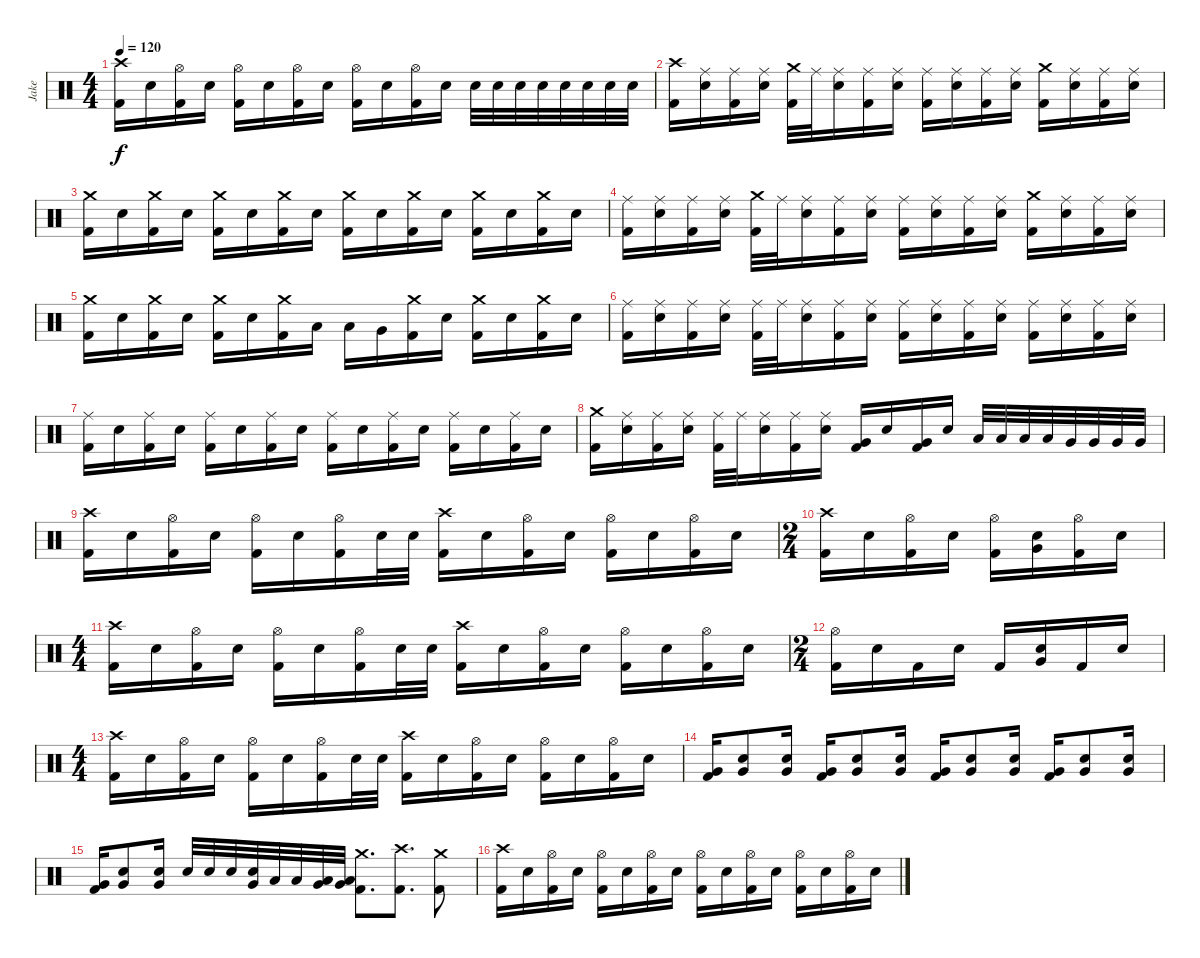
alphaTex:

\track ("Jake" "Jake") {instrument percussion}
\staff {score}
\articulation defaults
\ts (4 4)
\tempo 120
\clef neutral
\ks c
("Crash high (hit)" "Kick (hit) 2").16{dy f} "Snare (hit) 2".16 ("Hi-Hat (open)" "Kick (hit) 2").16 "Snare (hit) 2".16 ("Hi-Hat (open)" "Kick (hit) 2").16 "Snare (hit) 2".16 ("Hi-Hat (open)" "Kick (hit) 2").16 "Snare (hit) 2".16 ("Hi-Hat (open)" "Kick (hit) 2").16 "Snare (hit) 2".16 ("Hi-Hat (open)" "Kick (hit) 2").16 "Snare (hit) 2".16 "Snare (hit) 2".32 "Snare (hit) 2".32 "Snare (hit) 2".32 "Snare (hit) 2".32 "Snare (hit) 2".32 "Snare (hit) 2".32 "Snare (hit) 2".32 "Snare (hit) 2".32 |
("Crash high (hit)" "Kick (hit) 2").16 ("Ride (middle)" "Snare (hit) 2").16 ("Ride (middle)" "Kick (hit) 2").16 ("Ride (middle)" "Snare (hit) 2").16 ("Crash medium (hit)" "Kick (hit) 2").32 "Ride (middle)".32 ("Ride (middle)" "Snare (hit) 2").16 ("Ride (middle)" "Kick (hit) 2").16 ("Ride (middle)" "Snare (hit) 2").16 ("Ride (middle)" "Kick (hit) 2").16 ("Ride (middle)" "Snare (hit) 2").16 ("Ride (middle)" "Kick (hit) 2").16 ("Ride (middle)" "Snare (hit) 2").16 ("Crash medium (hit)" "Kick (hit) 2").16 ("Ride (middle)" "Snare (hit) 2").16 ("Ride (middle)" "Kick (hit) 2").16 ("Ride (middle)" "Snare (hit) 2").16 |
("Crash medium (hit)" "Kick (hit) 2").16 "Snare (hit) 2".16 ("Crash medium (hit)" "Kick (hit) 2").16 "Snare (hit) 2".16 ("Crash medium (hit)" "Kick (hit) 2").16 "Snare (hit) 2".16 ("Crash medium (hit)" "Kick (hit) 2").16 "Snare (hit) 2".16 ("Crash medium (hit)" "Kick (hit) 2").16 "Snare (hit) 2".16 ("Crash medium (hit)" "Kick (hit) 2").16 "Snare (hit) 2".16 ("Crash medium (hit)" "Kick (hit) 2").16 "Snare (hit) 2".16 ("Crash medium (hit)" "Kick (hit) 2").16 "Snare (hit) 2".16 |
("Ride (middle)" "Kick (hit) 2").16 ("Ride (middle)" "Snare (hit) 2").16 ("Ride (middle)" "Kick (hit) 2").16 ("Ride (middle)" "Snare (hit) 2").16 ("Crash medium (hit)" "Kick (hit) 2").32 "Ride (middle)".32 ("Ride (middle)" "Snare (hit) 2").16 ("Ride (middle)" "Kick (hit) 2").16 ("Ride (middle)" "Snare (hit) 2").16 ("Ride (middle)" "Kick (hit) 2").16 ("Ride (middle)" "Snare (hit) 2").16 ("Ride (middle)" "Kick (hit) 2").16 ("Ride (middle)" "Snare (hit) 2").16 ("Crash medium (hit)" "Kick (hit) 2").16 ("Ride (middle)" "Snare (hit) 2").16 ("Ride (middle)" "Kick (hit) 2").16 ("Ride (middle)" "Snare (hit) 2").16 |
("Crash medium (hit)" "Kick (hit) 2").16 "Snare (hit) 2".16 ("Crash medium (hit)" "Kick (hit) 2").16 "Snare (hit) 2".16 ("Crash medium (hit)" "Kick (hit) 2").16 "Snare (hit) 2".16 ("Crash medium (hit)" "Kick (hit) 2").16 "Low Tom (hit)".16 "Low Tom (hit)".16 "Very Low Tom (hit)".16 ("Crash medium (hit)" "Kick (hit) 2").16 "Snare (hit) 2".16 ("Crash medium (hit)" "Kick (hit) 2").16 "Snare (hit) 2".16 ("Crash medium (hit)" "Kick (hit) 2").16 "Snare (hit) 2".16 |
("Ride (middle)" "Kick (hit) 2").16 ("Ride (middle)" "Snare (hit) 2").16 ("Ride (middle)" "Kick (hit) 2").16 ("Ride (middle)" "Snare (hit) 2").16 ("Ride (middle)" "Kick (hit) 2").32 "Ride (middle)".32 ("Ride (middle)" "Snare (hit) 2").16 ("Ride (middle)" "Kick (hit) 2").16 ("Ride (middle)" "Snare (hit) 2").16 ("Ride (middle)" "Kick (hit) 2").16 ("Ride (middle)" "Snare (hit) 2").16 ("Ride (middle)" "Kick (hit) 2").16 ("Ride (middle)" "Snare (hit) 2").16 ("Ride (middle)" "Kick (hit) 2").16 ("Ride (middle)" "Snare (hit) 2").16 ("Ride (middle)" "Kick (hit) 2").16 ("Ride (middle)" "Snare (hit) 2").16 |
("Ride (middle)" "Kick (hit) 2").16 "Snare (hit) 2".16 ("Ride (middle)" "Kick (hit) 2").16 "Snare (hit) 2".16 ("Ride (middle)" "Kick (hit) 2").16 "Snare (hit) 2".16 ("Ride (middle)" "Kick (hit) 2").16 "Snare (hit) 2".16 ("Ride (middle)" "Kick (hit) 2").16 "Snare (hit) 2".16 ("Ride (middle)" "Kick (hit) 2").16 "Snare (hit) 2".16 ("Ride (middle)" "Kick (hit) 2").16 "Snare (hit) 2".16 ("Ride (middle)" "Kick (hit) 2").16 "Snare (hit) 2".16 |
("Crash medium (hit)" "Kick (hit) 2").16 ("Ride (middle)" "Snare (hit) 2").16 ("Ride (middle)" "Kick (hit) 2").16 ("Ride (middle)" "Snare (hit) 2").16 ("Ride (middle)" "Kick (hit) 2").32 "Ride (middle)".32 ("Ride (middle)" "Snare (hit) 2").16 ("Ride (middle)" "Kick (hit) 2").16 ("Ride (middle)" "Snare (hit) 2").16 ("Very Low Tom (hit)" "Kick (hit) 2").16 "Snare (hit) 2".16 ("Very Low Tom (hit)" "Kick (hit) 2").16 "Snare (hit) 2".16 "Low Tom (hit)".32 "Low Tom (hit)".32 "Low Tom (hit)".32 "Low Tom (hit)".32 "Very Low Tom (hit)".32 "Very Low Tom (hit)".32 "Very Low Tom (hit)".32 "Very Low Tom (hit)".32 |
("Crash high (hit)" "Kick (hit) 2").16 "Snare (hit) 2".16 ("Hi-Hat (open)" "Kick (hit) 2").16 "Snare (hit) 2".16 ("Hi-Hat (open)" "Kick (hit) 2").16 "Snare (hit) 2".16 ("Hi-Hat (open)" "Kick (hit) 2").16 "Snare (hit) 2".32 "Snare (hit) 2".32 ("Crash high (hit)" "Kick (hit) 2").16 "Snare (hit) 2".16 ("Hi-Hat (open)" "Kick (hit) 2").16 "Snare (hit) 2".16 ("Hi-Hat (open)" "Kick (hit) 2").16 "Snare (hit) 2".16 ("Hi-Hat (open)" "Kick (hit) 2").16 "Snare (hit) 2".16 |
\ts (2 4)
("Crash high (hit)" "Kick (hit) 2").16 "Snare (hit) 2".16 ("Hi-Hat (open)" "Kick (hit) 2").16 "Snare (hit) 2".16 ("Hi-Hat (open)" "Kick (hit) 2").16 ("Very Low Tom (hit)" "Snare (hit) 2").16 ("Hi-Hat (open)" "Kick (hit) 2").16 "Snare (hit) 2".16 |
\ts (4 4)
("Crash high (hit)" "Kick (hit) 2").16 "Snare (hit) 2".16 ("Hi-Hat (open)" "Kick (hit) 2").16 "Snare (hit) 2".16 ("Hi-Hat (open)" "Kick (hit) 2").16 "Snare (hit) 2".16 ("Hi-Hat (open)" "Kick (hit) 2").16 "Snare (hit) 2".32 "Snare (hit) 2".32 ("Crash high (hit)" "Kick (hit) 2").16 "Snare (hit) 2".16 ("Hi-Hat (open)" "Kick (hit) 2").16 "Snare (hit) 2".16 ("Hi-Hat (open)" "Kick (hit) 2").16 "Snare (hit) 2".16 ("Hi-Hat (open)" "Kick (hit) 2").16 "Snare (hit) 2".16 |
\ts (2 4)
("Hi-Hat (open)" "Kick (hit) 2").16 "Snare (hit) 2".16 "Kick (hit) 2".16 "Snare (hit) 2".16 "Kick (hit) 2".16 ("Very Low Tom (hit)" "Snare (hit) 2").16 "Kick (hit) 2".16 "Snare (hit) 2".16 |
\ts (4 4)
("Crash high (hit)" "Kick (hit) 2").16 "Snare (hit) 2".16 ("Hi-Hat (open)" "Kick (hit) 2").16 "Snare (hit) 2".16 ("Hi-Hat (open)" "Kick (hit) 2").16 "Snare (hit) 2".16 ("Hi-Hat (open)" "Kick (hit) 2").16 "Snare (hit) 2".32 "Snare (hit) 2".32 ("Crash high (hit)" "Kick (hit) 2").16 "Snare (hit) 2".16 ("Hi-Hat (open)" "Kick (hit) 2").16 "Snare (hit) 2".16 ("Hi-Hat (open)" "Kick (hit) 2").16 "Snare (hit) 2".16 ("Hi-Hat (open)" "Kick (hit) 2").16 "Snare (hit) 2".16 |
("Very Low Tom (hit)" "Kick (hit) 2").16 ("Very Low Tom (hit)" "Snare (hit) 2").8 ("Very Low Tom (hit)" "Snare (hit) 2").16 ("Very Low Tom (hit)" "Kick (hit) 2").16 ("Very Low Tom (hit)" "Snare (hit) 2").8 ("Very Low Tom (hit)" "Snare (hit) 2").16 ("Very Low Tom (hit)" "Kick (hit) 2").16 ("Very Low Tom (hit)" "Snare (hit) 2").8 ("Very Low Tom (hit)" "Snare (hit) 2").16 ("Very Low Tom (hit)" "Kick (hit) 2").16 ("Very Low Tom (hit)" "Snare (hit) 2").8 ("Very Low Tom (hit)" "Snare (hit) 2").16 |
("Very Low Tom (hit)" "Kick (hit) 2").16 ("Very Low Tom (hit)" "Snare (hit) 2").8 ("Very Low Tom (hit)" "Snare (hit) 2").16 "Snare (hit) 2".32 "Snare (hit) 2".32 "Snare (hit) 2".32 ("Very Low Tom (hit)" "Snare (hit) 2").32 "Low Tom (hit)".32 "Low Tom (hit)".32 ("Very Low Tom (hit)" "Low Tom (hit)").32 ("Very Low Tom (hit)" "Low Tom (hit)").32 ("Crash medium (hit)" "Kick (hit) 2").8{d} ("Crash high (hit)" "Kick (hit) 2").8{d} ("Crash medium (hit)" "Kick (hit) 2").8 |
("Crash high (hit)" "Kick (hit) 2").16 "Snare (hit) 2".16 ("Hi-Hat (open)" "Kick (hit) 2").16 "Snare (hit) 2".16 ("Hi-Hat (open)" "Kick (hit) 2").16 "Snare (hit) 2".16 ("Hi-Hat (open)" "Kick (hit) 2").16 "Snare (hit) 2".16 ("Hi-Hat (open)" "Kick (hit) 2").16 "Snare (hit) 2".16 ("Hi-Hat (open)" "Kick (hit) 2").16 "Snare (hit) 2".16 ("Hi-Hat (open)" "Kick (hit) 2").16 "Snare (hit) 2".16 ("Hi-Hat (open)" "Kick (hit) 2").16 "Snare (hit) 2".16
